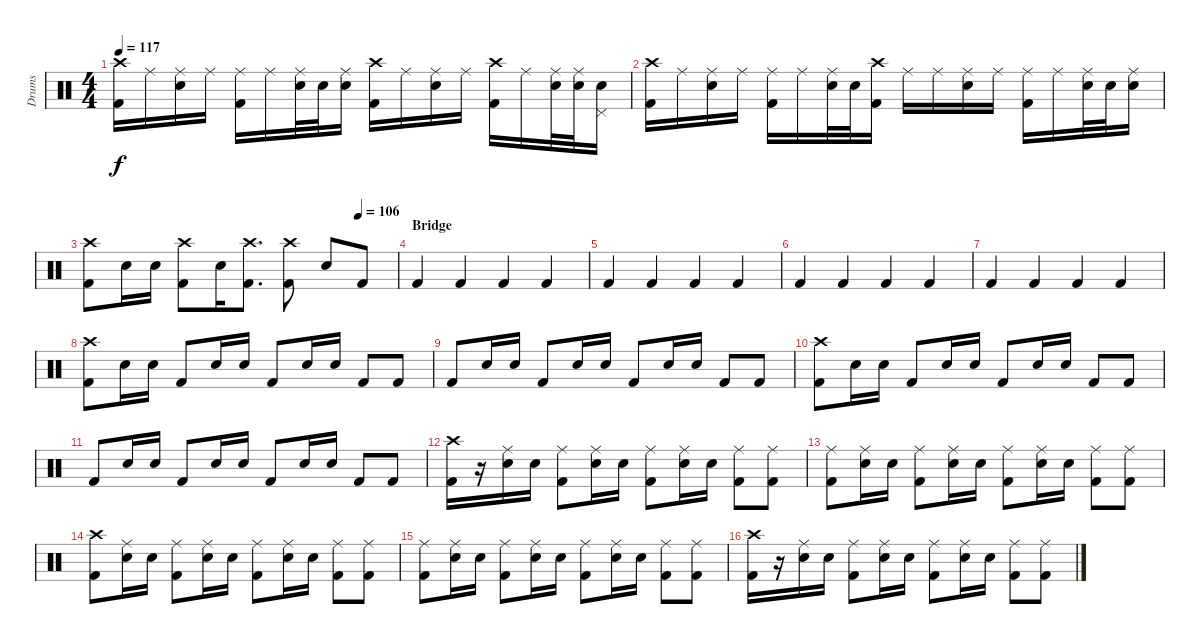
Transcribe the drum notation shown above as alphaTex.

\track ("Drums" "Drums") {instrument percussion}
\staff {score}
\articulation defaults
\ts (4 4)
\tempo 117
\clef neutral
\ks c
("Crash high (hit)" "Kick (hit) 2").16{dy f} "Ride (middle)".16 ("Ride (middle)" "Electric Snare (hit)").16 "Ride (middle)".16 ("Ride (middle)" "Kick (hit) 2").16 "Ride (middle)".16 ("Ride (middle)" "Electric Snare (hit)").32 "Electric Snare (hit)".32 ("Ride (middle)" "Electric Snare (hit)").16 ("Crash high (hit)" "Kick (hit) 2").16 "Ride (middle)".16 ("Ride (middle)" "Electric Snare (hit)").16 "Ride (middle)".16 ("Crash high (hit)" "Kick (hit) 2").16 "Ride (middle)".16 ("Ride (middle)" "Electric Snare (hit)").32 ("Ride (middle)" "Electric Snare (hit)").32 ("Pedal Hi-Hat (hit)" "Electric Snare (hit)").16 |
("Crash high (hit)" "Kick (hit) 2").16 "Ride (middle)".16 ("Ride (middle)" "Electric Snare (hit)").16 "Ride (middle)".16 ("Ride (middle)" "Kick (hit) 2").16 "Ride (middle)".16 ("Ride (middle)" "Electric Snare (hit)").32 "Electric Snare (hit)".32 ("Crash high (hit)" "Kick (hit) 2").16 "Ride (middle)".16 "Ride (middle)".16 ("Ride (middle)" "Electric Snare (hit)").16 "Ride (middle)".16 ("Ride (middle)" "Kick (hit) 2").16 "Ride (middle)".16 ("Ride (middle)" "Electric Snare (hit)").32 "Electric Snare (hit)".32 ("Ride (middle)" "Electric Snare (hit)").16 |
\tempo (106 0.875)
("Crash high (hit)" "Kick (hit) 2").8 "Electric Snare (hit)".16 "Electric Snare (hit)".16 ("Crash high (hit)" "Kick (hit) 2").8 "Electric Snare (hit)".16 ("Crash high (hit)" "Kick (hit) 2").8{d} ("Crash high (hit)" "Kick (hit) 2").8 "Electric Snare (hit)".8 "Kick (hit) 2".8 |
\section ("" "Bridge")
"Kick (hit) 2".4 "Kick (hit) 2".4 "Kick (hit) 2".4 "Kick (hit) 2".4 |
"Kick (hit) 2".4 "Kick (hit) 2".4 "Kick (hit) 2".4 "Kick (hit) 2".4 |
"Kick (hit) 2".4 "Kick (hit) 2".4 "Kick (hit) 2".4 "Kick (hit) 2".4 |
"Kick (hit) 2".4 "Kick (hit) 2".4 "Kick (hit) 2".4 "Kick (hit) 2".4 |
("Crash high (hit)" "Kick (hit) 2").8 "Electric Snare (hit)".16 "Electric Snare (hit)".16 "Kick (hit) 2".8 "Electric Snare (hit)".16 "Electric Snare (hit)".16 "Kick (hit) 2".8 "Electric Snare (hit)".16 "Electric Snare (hit)".16 "Kick (hit) 2".8 "Kick (hit) 2".8 |
"Kick (hit) 2".8 "Electric Snare (hit)".16 "Electric Snare (hit)".16 "Kick (hit) 2".8 "Electric Snare (hit)".16 "Electric Snare (hit)".16 "Kick (hit) 2".8 "Electric Snare (hit)".16 "Electric Snare (hit)".16 "Kick (hit) 2".8 "Kick (hit) 2".8 |
("Crash high (hit)" "Kick (hit) 2").8 "Electric Snare (hit)".16 "Electric Snare (hit)".16 "Kick (hit) 2".8 "Electric Snare (hit)".16 "Electric Snare (hit)".16 "Kick (hit) 2".8 "Electric Snare (hit)".16 "Electric Snare (hit)".16 "Kick (hit) 2".8 "Kick (hit) 2".8 |
"Kick (hit) 2".8 "Electric Snare (hit)".16 "Electric Snare (hit)".16 "Kick (hit) 2".8 "Electric Snare (hit)".16 "Electric Snare (hit)".16 "Kick (hit) 2".8 "Electric Snare (hit)".16 "Electric Snare (hit)".16 "Kick (hit) 2".8 "Kick (hit) 2".8 |
("Crash high (hit)" "Kick (hit) 2").16 r.16 ("Ride (middle)" "Electric Snare (hit)").16 "Electric Snare (hit)".16 ("Ride (middle)" "Kick (hit) 2").8 ("Ride (middle)" "Electric Snare (hit)").16 "Electric Snare (hit)".16 ("Ride (middle)" "Kick (hit) 2").8 ("Ride (middle)" "Electric Snare (hit)").16 "Electric Snare (hit)".16 ("Ride (middle)" "Kick (hit) 2").8 ("Ride (middle)" "Kick (hit) 2").8 |
("Ride (middle)" "Kick (hit) 2").8 ("Ride (middle)" "Electric Snare (hit)").16 "Electric Snare (hit)".16 ("Ride (middle)" "Kick (hit) 2").8 ("Ride (middle)" "Electric Snare (hit)").16 "Electric Snare (hit)".16 ("Ride (middle)" "Kick (hit) 2").8 ("Ride (middle)" "Electric Snare (hit)").16 "Electric Snare (hit)".16 ("Ride (middle)" "Kick (hit) 2").8 ("Ride (middle)" "Kick (hit) 2").8 |
("Crash high (hit)" "Kick (hit) 2").8 ("Ride (middle)" "Electric Snare (hit)").16 "Electric Snare (hit)".16 ("Ride (middle)" "Kick (hit) 2").8 ("Ride (middle)" "Electric Snare (hit)").16 "Electric Snare (hit)".16 ("Ride (middle)" "Kick (hit) 2").8 ("Ride (middle)" "Electric Snare (hit)").16 "Electric Snare (hit)".16 ("Ride (middle)" "Kick (hit) 2").8 ("Ride (middle)" "Kick (hit) 2").8 |
("Ride (middle)" "Kick (hit) 2").8 ("Ride (middle)" "Electric Snare (hit)").16 "Electric Snare (hit)".16 ("Ride (middle)" "Kick (hit) 2").8 ("Ride (middle)" "Electric Snare (hit)").16 "Electric Snare (hit)".16 ("Ride (middle)" "Kick (hit) 2").8 ("Ride (middle)" "Electric Snare (hit)").16 "Electric Snare (hit)".16 ("Ride (middle)" "Kick (hit) 2").8 ("Ride (middle)" "Kick (hit) 2").8 |
("Crash high (hit)" "Kick (hit) 2").16 r.16 ("Ride (middle)" "Electric Snare (hit)").16 "Electric Snare (hit)".16 ("Ride (middle)" "Kick (hit) 2").8 ("Ride (middle)" "Electric Snare (hit)").16 "Electric Snare (hit)".16 ("Ride (middle)" "Kick (hit) 2").8 ("Ride (middle)" "Electric Snare (hit)").16 "Electric Snare (hit)".16 ("Ride (middle)" "Kick (hit) 2").8 ("Ride (middle)" "Kick (hit) 2").8
